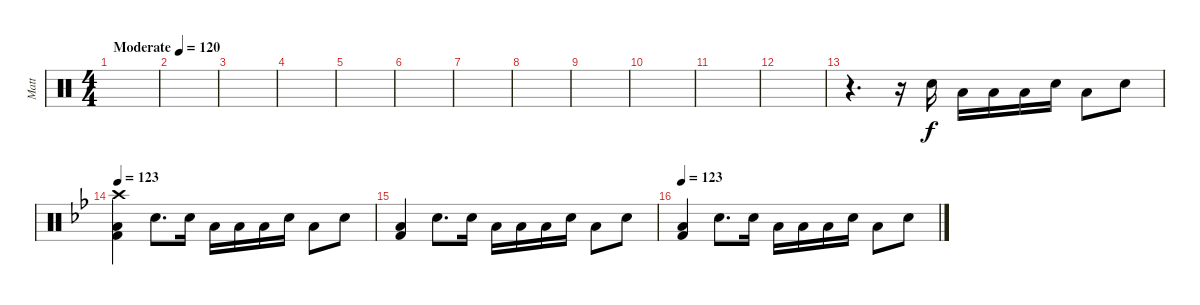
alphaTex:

\track ("Matt" "Matt") {instrument percussion}
\staff {score}
\articulation defaults
\ts (4 4)
\tempo (120 "Moderate")
\clef neutral
\ks c
|
|
|
|
|
|
|
|
|
|
|
|
r.4{d} r.16 "Snare (hit) 2".16 "Low Floor Tom (hit)".16 "Low Floor Tom (hit)".16 "Low Floor Tom (hit)".16 "Snare (hit) 2".16 "Low Floor Tom (hit)".8 "Snare (hit) 2".8 |
\tempo 123
\ks bb
("Low Floor Tom (hit)" "Kick (hit) 2" "Crash high (hit)").4 "Snare (hit) 2".8{d} "Snare (hit) 2".16 "Low Floor Tom (hit)".16 "Low Floor Tom (hit)".16 "Low Floor Tom (hit)".16 "Snare (hit) 2".16 "Low Floor Tom (hit)".8 "Snare (hit) 2".8 |
("Low Floor Tom (hit)" "Kick (hit) 2").4 "Snare (hit) 2".8{d} "Snare (hit) 2".16 "Low Floor Tom (hit)".16 "Low Floor Tom (hit)".16 "Low Floor Tom (hit)".16 "Snare (hit) 2".16 "Low Floor Tom (hit)".8 "Snare (hit) 2".8 |
\tempo 123
("Low Floor Tom (hit)" "Kick (hit) 2").4 "Snare (hit) 2".8{d} "Snare (hit) 2".16 "Low Floor Tom (hit)".16 "Low Floor Tom (hit)".16 "Low Floor Tom (hit)".16 "Snare (hit) 2".16 "Low Floor Tom (hit)".8 "Snare (hit) 2".8
